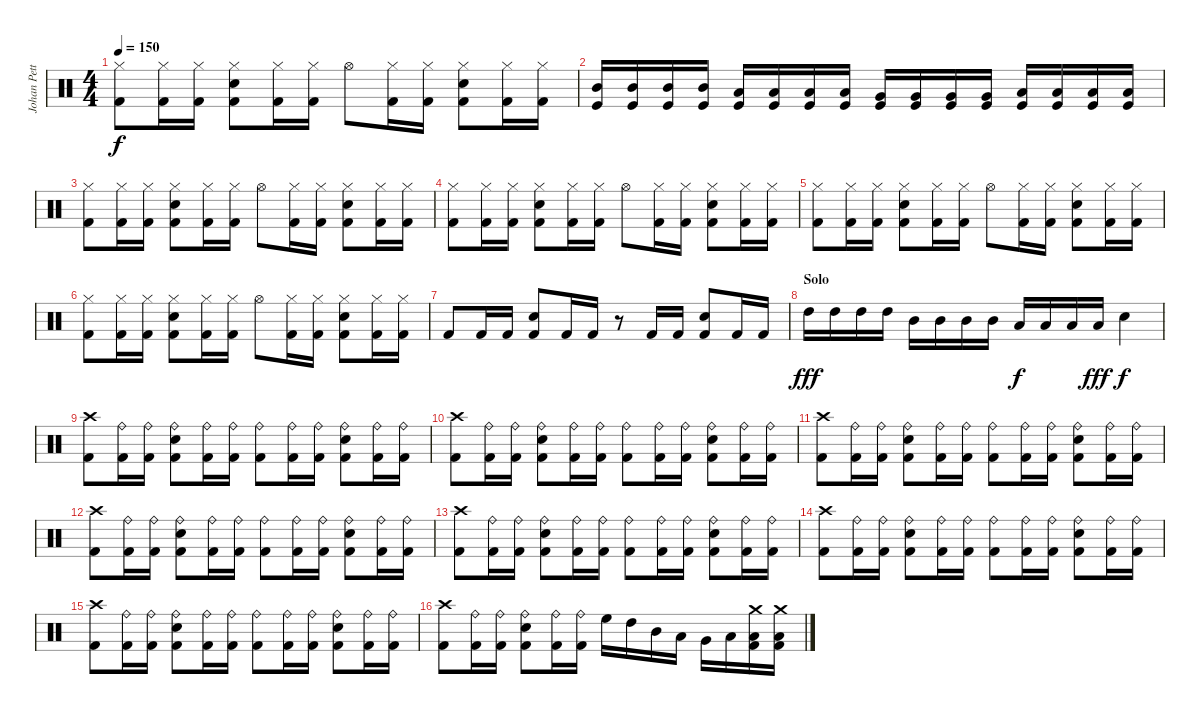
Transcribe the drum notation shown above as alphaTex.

\track ("Johan Petterson" "Johan Pett") {instrument percussion}
\staff {score}
\articulation defaults
\ts (4 4)
\tempo 150
\clef neutral
\ks c
("Hi-Hat (closed)" "Kick (hit) 2").8{dy f} ("Hi-Hat (closed)" "Kick (hit) 2").16 ("Hi-Hat (closed)" "Kick (hit) 2").16 ("Hi-Hat (closed)" "Snare (hit) 2" "Kick (hit) 2").8 ("Hi-Hat (closed)" "Kick (hit) 2").16 ("Hi-Hat (closed)" "Kick (hit) 2").16 "Hi-Hat (open)".8 ("Hi-Hat (closed)" "Kick (hit) 2").16 ("Hi-Hat (closed)" "Kick (hit) 2").16 ("Hi-Hat (closed)" "Snare (hit) 2" "Kick (hit) 2").8 ("Hi-Hat (closed)" "Kick (hit) 2").16 ("Hi-Hat (closed)" "Kick (hit) 2").16 |
("Kick (hit)" "Mid Tom (hit)").16 ("Kick (hit)" "Mid Tom (hit)").16 ("Kick (hit)" "Mid Tom (hit)").16 ("Kick (hit)" "Mid Tom (hit)").16 ("Kick (hit)" "Low Tom (hit)").16 ("Kick (hit)" "Low Tom (hit)").16 ("Kick (hit)" "Low Tom (hit)").16 ("Kick (hit)" "Low Tom (hit)").16 ("Kick (hit)" "Very Low Tom (hit)").16 ("Kick (hit)" "Very Low Tom (hit)").16 ("Kick (hit)" "Very Low Tom (hit)").16 ("Kick (hit)" "Very Low Tom (hit)").16 ("Kick (hit)" "Low Floor Tom (hit)").16 ("Kick (hit)" "Low Floor Tom (hit)").16 ("Kick (hit)" "Low Floor Tom (hit)").16 ("Kick (hit)" "Low Floor Tom (hit)").16 |
("Hi-Hat (closed)" "Kick (hit) 2").8 ("Hi-Hat (closed)" "Kick (hit) 2").16 ("Hi-Hat (closed)" "Kick (hit) 2").16 ("Hi-Hat (closed)" "Snare (hit) 2" "Kick (hit) 2").8 ("Hi-Hat (closed)" "Kick (hit) 2").16 ("Hi-Hat (closed)" "Kick (hit) 2").16 "Hi-Hat (open)".8 ("Hi-Hat (closed)" "Kick (hit) 2").16 ("Hi-Hat (closed)" "Kick (hit) 2").16 ("Hi-Hat (closed)" "Snare (hit) 2" "Kick (hit) 2").8 ("Hi-Hat (closed)" "Kick (hit) 2").16 ("Hi-Hat (closed)" "Kick (hit) 2").16 |
("Hi-Hat (closed)" "Kick (hit) 2").8 ("Hi-Hat (closed)" "Kick (hit) 2").16 ("Hi-Hat (closed)" "Kick (hit) 2").16 ("Hi-Hat (closed)" "Snare (hit) 2" "Kick (hit) 2").8 ("Hi-Hat (closed)" "Kick (hit) 2").16 ("Hi-Hat (closed)" "Kick (hit) 2").16 "Hi-Hat (open)".8 ("Hi-Hat (closed)" "Kick (hit) 2").16 ("Hi-Hat (closed)" "Kick (hit) 2").16 ("Hi-Hat (closed)" "Snare (hit) 2" "Kick (hit) 2").8 ("Hi-Hat (closed)" "Kick (hit) 2").16 ("Hi-Hat (closed)" "Kick (hit) 2").16 |
("Hi-Hat (closed)" "Kick (hit) 2").8 ("Hi-Hat (closed)" "Kick (hit) 2").16 ("Hi-Hat (closed)" "Kick (hit) 2").16 ("Hi-Hat (closed)" "Snare (hit) 2" "Kick (hit) 2").8 ("Hi-Hat (closed)" "Kick (hit) 2").16 ("Hi-Hat (closed)" "Kick (hit) 2").16 "Hi-Hat (open)".8 ("Hi-Hat (closed)" "Kick (hit) 2").16 ("Hi-Hat (closed)" "Kick (hit) 2").16 ("Hi-Hat (closed)" "Snare (hit) 2" "Kick (hit) 2").8 ("Hi-Hat (closed)" "Kick (hit) 2").16 ("Hi-Hat (closed)" "Kick (hit) 2").16 |
("Hi-Hat (closed)" "Kick (hit) 2").8 ("Hi-Hat (closed)" "Kick (hit) 2").16 ("Hi-Hat (closed)" "Kick (hit) 2").16 ("Hi-Hat (closed)" "Snare (hit) 2" "Kick (hit) 2").8 ("Hi-Hat (closed)" "Kick (hit) 2").16 ("Hi-Hat (closed)" "Kick (hit) 2").16 "Hi-Hat (open)".8 ("Hi-Hat (closed)" "Kick (hit) 2").16 ("Hi-Hat (closed)" "Kick (hit) 2").16 ("Hi-Hat (closed)" "Snare (hit) 2" "Kick (hit) 2").8 ("Hi-Hat (closed)" "Kick (hit) 2").16 ("Hi-Hat (closed)" "Kick (hit) 2").16 |
"Kick (hit) 2".8 "Kick (hit) 2".16 "Kick (hit) 2".16 ("Snare (hit) 2" "Kick (hit) 2").8 "Kick (hit) 2".16 "Kick (hit) 2".16 r.8 "Kick (hit) 2".16 "Kick (hit) 2".16 ("Snare (hit) 2" "Kick (hit) 2").8 "Kick (hit) 2".16 "Kick (hit) 2".16 |
\section ("" "Solo")
"High Tom (hit)".16{dy fff} "High Tom (hit)".16 "High Tom (hit)".16 "High Tom (hit)".16 "Mid Tom (hit)".16 "Mid Tom (hit)".16 "Mid Tom (hit)".16 "Mid Tom (hit)".16 "Low Tom (hit)".16{dy f} "Low Tom (hit)".16 "Low Tom (hit)".16 "Low Tom (hit)".16{dy fff} "Snare (hit) 2".4{dy f} |
("Crash high (hit)" "Kick (hit) 2").8 ("Ride (bell)" "Kick (hit) 2").16 ("Ride (bell)" "Kick (hit) 2").16 ("Ride (bell)" "Snare (hit) 2" "Kick (hit) 2").8 ("Ride (bell)" "Kick (hit) 2").16 ("Ride (bell)" "Kick (hit) 2").16 ("Ride (bell)" "Kick (hit) 2").8 ("Ride (bell)" "Kick (hit) 2").16 ("Ride (bell)" "Kick (hit) 2").16 ("Ride (bell)" "Snare (hit) 2" "Kick (hit) 2").8 ("Ride (bell)" "Kick (hit) 2").16 ("Ride (bell)" "Kick (hit) 2").16 |
("Crash high (hit)" "Kick (hit) 2").8 ("Ride (bell)" "Kick (hit) 2").16 ("Ride (bell)" "Kick (hit) 2").16 ("Ride (bell)" "Snare (hit) 2" "Kick (hit) 2").8 ("Ride (bell)" "Kick (hit) 2").16 ("Ride (bell)" "Kick (hit) 2").16 ("Ride (bell)" "Kick (hit) 2").8 ("Ride (bell)" "Kick (hit) 2").16 ("Ride (bell)" "Kick (hit) 2").16 ("Ride (bell)" "Snare (hit) 2" "Kick (hit) 2").8 ("Ride (bell)" "Kick (hit) 2").16 ("Ride (bell)" "Kick (hit) 2").16 |
("Crash high (hit)" "Kick (hit) 2").8 ("Ride (bell)" "Kick (hit) 2").16 ("Ride (bell)" "Kick (hit) 2").16 ("Ride (bell)" "Snare (hit) 2" "Kick (hit) 2").8 ("Ride (bell)" "Kick (hit) 2").16 ("Ride (bell)" "Kick (hit) 2").16 ("Ride (bell)" "Kick (hit) 2").8 ("Ride (bell)" "Kick (hit) 2").16 ("Ride (bell)" "Kick (hit) 2").16 ("Ride (bell)" "Snare (hit) 2" "Kick (hit) 2").8 ("Ride (bell)" "Kick (hit) 2").16 ("Ride (bell)" "Kick (hit) 2").16 |
("Crash high (hit)" "Kick (hit) 2").8 ("Ride (bell)" "Kick (hit) 2").16 ("Ride (bell)" "Kick (hit) 2").16 ("Ride (bell)" "Snare (hit) 2" "Kick (hit) 2").8 ("Ride (bell)" "Kick (hit) 2").16 ("Ride (bell)" "Kick (hit) 2").16 ("Ride (bell)" "Kick (hit) 2").8 ("Ride (bell)" "Kick (hit) 2").16 ("Ride (bell)" "Kick (hit) 2").16 ("Ride (bell)" "Snare (hit) 2" "Kick (hit) 2").8 ("Ride (bell)" "Kick (hit) 2").16 ("Ride (bell)" "Kick (hit) 2").16 |
("Crash high (hit)" "Kick (hit) 2").8 ("Ride (bell)" "Kick (hit) 2").16 ("Ride (bell)" "Kick (hit) 2").16 ("Ride (bell)" "Snare (hit) 2" "Kick (hit) 2").8 ("Ride (bell)" "Kick (hit) 2").16 ("Ride (bell)" "Kick (hit) 2").16 ("Ride (bell)" "Kick (hit) 2").8 ("Ride (bell)" "Kick (hit) 2").16 ("Ride (bell)" "Kick (hit) 2").16 ("Ride (bell)" "Snare (hit) 2" "Kick (hit) 2").8 ("Ride (bell)" "Kick (hit) 2").16 ("Ride (bell)" "Kick (hit) 2").16 |
("Crash high (hit)" "Kick (hit) 2").8 ("Ride (bell)" "Kick (hit) 2").16 ("Ride (bell)" "Kick (hit) 2").16 ("Ride (bell)" "Snare (hit) 2" "Kick (hit) 2").8 ("Ride (bell)" "Kick (hit) 2").16 ("Ride (bell)" "Kick (hit) 2").16 ("Ride (bell)" "Kick (hit) 2").8 ("Ride (bell)" "Kick (hit) 2").16 ("Ride (bell)" "Kick (hit) 2").16 ("Ride (bell)" "Snare (hit) 2" "Kick (hit) 2").8 ("Ride (bell)" "Kick (hit) 2").16 ("Ride (bell)" "Kick (hit) 2").16 |
("Crash high (hit)" "Kick (hit) 2").8 ("Ride (bell)" "Kick (hit) 2").16 ("Ride (bell)" "Kick (hit) 2").16 ("Ride (bell)" "Snare (hit) 2" "Kick (hit) 2").8 ("Ride (bell)" "Kick (hit) 2").16 ("Ride (bell)" "Kick (hit) 2").16 ("Ride (bell)" "Kick (hit) 2").8 ("Ride (bell)" "Kick (hit) 2").16 ("Ride (bell)" "Kick (hit) 2").16 ("Ride (bell)" "Snare (hit) 2" "Kick (hit) 2").8 ("Ride (bell)" "Kick (hit) 2").16 ("Ride (bell)" "Kick (hit) 2").16 |
("Crash high (hit)" "Kick (hit) 2").8 ("Ride (bell)" "Kick (hit) 2").16 ("Ride (bell)" "Kick (hit) 2").16 ("Ride (bell)" "Snare (hit) 2" "Kick (hit) 2").8 ("Ride (bell)" "Kick (hit) 2").16 ("Ride (bell)" "Kick (hit) 2").16 "High Floor Tom (hit)".16 "High Tom (hit)".16 "Mid Tom (hit)".16 "Low Tom (hit)".16 "Very Low Tom (hit)".16 "Low Floor Tom (hit)".16 ("Crash medium (hit)" "Low Floor Tom (hit)" "Kick (hit) 2").16 ("Crash medium (hit)" "Low Floor Tom (hit)" "Kick (hit) 2").16
